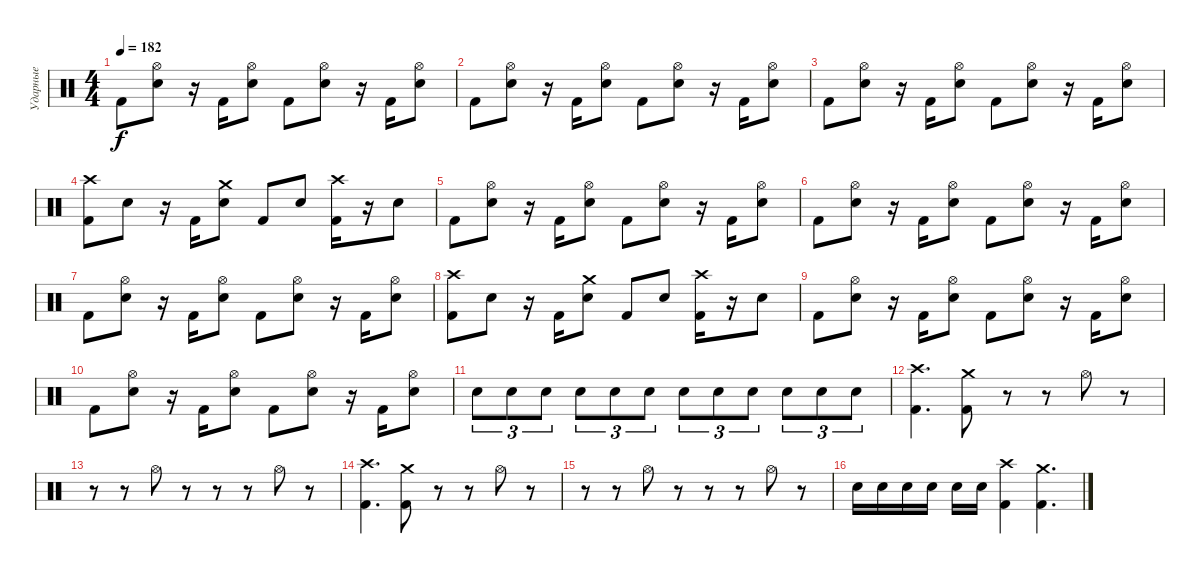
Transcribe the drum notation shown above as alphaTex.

\track ("Ударные" "Ударные") {instrument percussion}
\staff {score}
\articulation defaults
\ts (4 4)
\tempo 182
\clef neutral
\ks c "Kick (hit) 2".8{dy f}
("Hi-Hat (open)" "Electric Snare (hit)").8 r.16 "Kick (hit) 2".16 ("Hi-Hat (open)" "Electric Snare (hit)").8 "Kick (hit) 2".8 ("Hi-Hat (open)" "Electric Snare (hit)").8 r.16 "Kick (hit) 2".16 ("Hi-Hat (open)" "Electric Snare (hit)").8 |
"Kick (hit) 2".8 ("Hi-Hat (open)" "Electric Snare (hit)").8 r.16 "Kick (hit) 2".16 ("Hi-Hat (open)" "Electric Snare (hit)").8 "Kick (hit) 2".8 ("Hi-Hat (open)" "Electric Snare (hit)").8 r.16 "Kick (hit) 2".16 ("Hi-Hat (open)" "Electric Snare (hit)").8 |
"Kick (hit) 2".8 ("Hi-Hat (open)" "Electric Snare (hit)").8 r.16 "Kick (hit) 2".16 ("Hi-Hat (open)" "Electric Snare (hit)").8 "Kick (hit) 2".8 ("Hi-Hat (open)" "Electric Snare (hit)").8 r.16 "Kick (hit) 2".16 ("Hi-Hat (open)" "Electric Snare (hit)").8 |
("Crash high (hit)" "Kick (hit) 2").8 "Electric Snare (hit)".8 r.16 "Kick (hit) 2".16 ("Crash medium (hit)" "Electric Snare (hit)").8 "Kick (hit) 2".8 "Electric Snare (hit)".8 ("Crash high (hit)" "Kick (hit) 2").16 r.16 "Electric Snare (hit)".8 |
"Kick (hit) 2".8 ("Hi-Hat (open)" "Electric Snare (hit)").8 r.16 "Kick (hit) 2".16 ("Hi-Hat (open)" "Electric Snare (hit)").8 "Kick (hit) 2".8 ("Hi-Hat (open)" "Electric Snare (hit)").8 r.16 "Kick (hit) 2".16 ("Hi-Hat (open)" "Electric Snare (hit)").8 |
"Kick (hit) 2".8 ("Hi-Hat (open)" "Electric Snare (hit)").8 r.16 "Kick (hit) 2".16 ("Hi-Hat (open)" "Electric Snare (hit)").8 "Kick (hit) 2".8 ("Hi-Hat (open)" "Electric Snare (hit)").8 r.16 "Kick (hit) 2".16 ("Hi-Hat (open)" "Electric Snare (hit)").8 |
"Kick (hit) 2".8 ("Hi-Hat (open)" "Electric Snare (hit)").8 r.16 "Kick (hit) 2".16 ("Hi-Hat (open)" "Electric Snare (hit)").8 "Kick (hit) 2".8 ("Hi-Hat (open)" "Electric Snare (hit)").8 r.16 "Kick (hit) 2".16 ("Hi-Hat (open)" "Electric Snare (hit)").8 |
("Crash high (hit)" "Kick (hit) 2").8 "Electric Snare (hit)".8 r.16 "Kick (hit) 2".16 ("Crash medium (hit)" "Electric Snare (hit)").8 "Kick (hit) 2".8 "Electric Snare (hit)".8 ("Crash high (hit)" "Kick (hit) 2").16 r.16 "Electric Snare (hit)".8 |
"Kick (hit) 2".8 ("Hi-Hat (open)" "Electric Snare (hit)").8 r.16 "Kick (hit) 2".16 ("Hi-Hat (open)" "Electric Snare (hit)").8 "Kick (hit) 2".8 ("Hi-Hat (open)" "Electric Snare (hit)").8 r.16 "Kick (hit) 2".16 ("Hi-Hat (open)" "Electric Snare (hit)").8 |
"Kick (hit) 2".8 ("Hi-Hat (open)" "Electric Snare (hit)").8 r.16 "Kick (hit) 2".16 ("Hi-Hat (open)" "Electric Snare (hit)").8 "Kick (hit) 2".8 ("Hi-Hat (open)" "Electric Snare (hit)").8 r.16 "Kick (hit) 2".16 ("Hi-Hat (open)" "Electric Snare (hit)").8 |
"Electric Snare (hit)".8{tu (3 2)} "Electric Snare (hit)".8{tu (3 2)} "Electric Snare (hit)".8{tu (3 2)} "Electric Snare (hit)".8{tu (3 2)} "Electric Snare (hit)".8{tu (3 2)} "Electric Snare (hit)".8{tu (3 2)} "Electric Snare (hit)".8{tu (3 2)} "Electric Snare (hit)".8{tu (3 2)} "Electric Snare (hit)".8{tu (3 2)} "Electric Snare (hit)".8{tu (3 2)} "Electric Snare (hit)".8{tu (3 2)} "Electric Snare (hit)".8{tu (3 2)} |
("Crash high (hit)" "Kick (hit) 2").4{d} ("Crash medium (hit)" "Kick (hit) 2").8 r.8 r.8 "Hi-Hat (open)".8 r.8 |
r.8 r.8 "Hi-Hat (open)".8 r.8 r.8 r.8 "Hi-Hat (open)".8 r.8 |
("Crash high (hit)" "Kick (hit) 2").4{d} ("Crash medium (hit)" "Kick (hit) 2").8 r.8 r.8 "Hi-Hat (open)".8 r.8 |
r.8 r.8 "Hi-Hat (open)".8 r.8 r.8 r.8 "Hi-Hat (open)".8 r.8 |
"Electric Snare (hit)".16 "Electric Snare (hit)".16 "Electric Snare (hit)".16 "Electric Snare (hit)".16 "Electric Snare (hit)".16 "Electric Snare (hit)".16 ("Crash high (hit)" "Kick (hit) 2").4 ("Crash medium (hit)" "Kick (hit) 2").4{d}
